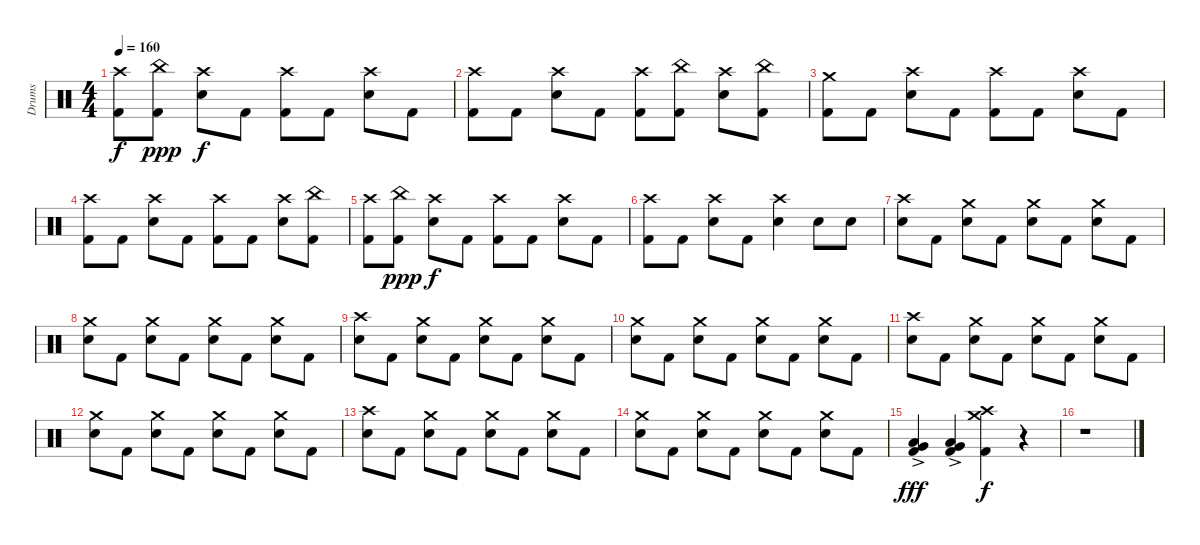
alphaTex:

\track ("Drums" "Drums") {instrument percussion}
\staff {score}
\articulation defaults
\ts (4 4)
\tempo 160
\clef neutral
\ks c
("Crash high (hit)" "Kick (hit) 2").8{dy f} ("China (hit)" "Kick (hit) 2").8{dy ppp} ("Crash high (hit)" "Snare (hit) 2").8{dy f} "Kick (hit) 2".8 ("Crash high (hit)" "Kick (hit) 2").8 "Kick (hit) 2".8 ("Crash high (hit)" "Snare (hit) 2").8 "Kick (hit) 2".8 |
("Crash high (hit)" "Kick (hit) 2").8 "Kick (hit) 2".8 ("Crash high (hit)" "Snare (hit) 2").8 "Kick (hit) 2".8 ("Crash high (hit)" "Kick (hit) 2").8 ("China (hit)" "Kick (hit) 2").8 ("Crash high (hit)" "Snare (hit) 2").8 ("China (hit)" "Kick (hit) 2").8 |
("Crash medium (hit)" "Kick (hit) 2").8 "Kick (hit) 2".8 ("Crash high (hit)" "Snare (hit) 2").8 "Kick (hit) 2".8 ("Crash high (hit)" "Kick (hit) 2").8 "Kick (hit) 2".8 ("Crash high (hit)" "Snare (hit) 2").8 "Kick (hit) 2".8 |
("Crash high (hit)" "Kick (hit) 2").8 "Kick (hit) 2".8 ("Crash high (hit)" "Snare (hit) 2").8 "Kick (hit) 2".8 ("Crash high (hit)" "Kick (hit) 2").8 "Kick (hit) 2".8 ("Crash high (hit)" "Snare (hit) 2").8 ("China (hit)" "Kick (hit) 2").8 |
("Crash high (hit)" "Kick (hit) 2").8 ("China (hit)" "Kick (hit) 2").8{dy ppp} ("Crash high (hit)" "Snare (hit) 2").8{dy f} "Kick (hit) 2".8 ("Crash high (hit)" "Kick (hit) 2").8 "Kick (hit) 2".8 ("Crash high (hit)" "Snare (hit) 2").8 "Kick (hit) 2".8 |
("Crash high (hit)" "Kick (hit) 2").8 "Kick (hit) 2".8 ("Crash high (hit)" "Snare (hit) 2").8 "Kick (hit) 2".8 ("Crash high (hit)" "Snare (hit) 2").4 "Snare (hit) 2".8 "Snare (hit) 2".8 |
("Crash high (hit)" "Snare (hit) 2").8 "Kick (hit) 2".8 ("Crash medium (hit)" "Snare (hit) 2").8 "Kick (hit) 2".8 ("Crash medium (hit)" "Snare (hit) 2").8 "Kick (hit) 2".8 ("Crash medium (hit)" "Snare (hit) 2").8 "Kick (hit) 2".8 |
("Crash medium (hit)" "Snare (hit) 2").8 "Kick (hit) 2".8 ("Crash medium (hit)" "Snare (hit) 2").8 "Kick (hit) 2".8 ("Crash medium (hit)" "Snare (hit) 2").8 "Kick (hit) 2".8 ("Crash medium (hit)" "Snare (hit) 2").8 "Kick (hit) 2".8 |
("Crash high (hit)" "Snare (hit) 2").8 "Kick (hit) 2".8 ("Crash medium (hit)" "Snare (hit) 2").8 "Kick (hit) 2".8 ("Crash medium (hit)" "Snare (hit) 2").8 "Kick (hit) 2".8 ("Crash medium (hit)" "Snare (hit) 2").8 "Kick (hit) 2".8 |
("Crash medium (hit)" "Snare (hit) 2").8 "Kick (hit) 2".8 ("Crash medium (hit)" "Snare (hit) 2").8 "Kick (hit) 2".8 ("Crash medium (hit)" "Snare (hit) 2").8 "Kick (hit) 2".8 ("Crash medium (hit)" "Snare (hit) 2").8 "Kick (hit) 2".8 |
("Crash high (hit)" "Snare (hit) 2").8 "Kick (hit) 2".8 ("Crash medium (hit)" "Snare (hit) 2").8 "Kick (hit) 2".8 ("Crash medium (hit)" "Snare (hit) 2").8 "Kick (hit) 2".8 ("Crash medium (hit)" "Snare (hit) 2").8 "Kick (hit) 2".8 |
("Crash medium (hit)" "Snare (hit) 2").8 "Kick (hit) 2".8 ("Crash medium (hit)" "Snare (hit) 2").8 "Kick (hit) 2".8 ("Crash medium (hit)" "Snare (hit) 2").8 "Kick (hit) 2".8 ("Crash medium (hit)" "Snare (hit) 2").8 "Kick (hit) 2".8 |
("Crash high (hit)" "Snare (hit) 2").8 "Kick (hit) 2".8 ("Crash medium (hit)" "Snare (hit) 2").8 "Kick (hit) 2".8 ("Crash medium (hit)" "Snare (hit) 2").8 "Kick (hit) 2".8 ("Crash medium (hit)" "Snare (hit) 2").8 "Kick (hit) 2".8 |
("Crash medium (hit)" "Snare (hit) 2").8 "Kick (hit) 2".8 ("Crash medium (hit)" "Snare (hit) 2").8 "Kick (hit) 2".8 ("Crash medium (hit)" "Snare (hit) 2").8 "Kick (hit) 2".8 ("Crash medium (hit)" "Snare (hit) 2").8 "Kick (hit) 2".8 |
("Very Low Tom (hit)"{ac} "Low Floor Tom (hit)"{ac} "Kick (hit) 2"{ac}).4{dy fff} ("Very Low Tom (hit)"{ac} "Low Floor Tom (hit)"{ac} "Kick (hit) 2"{ac}).4 ("Crash high (hit)" "Crash medium (hit)" "Kick (hit) 2").4{dy f} r.4 |
r.1
